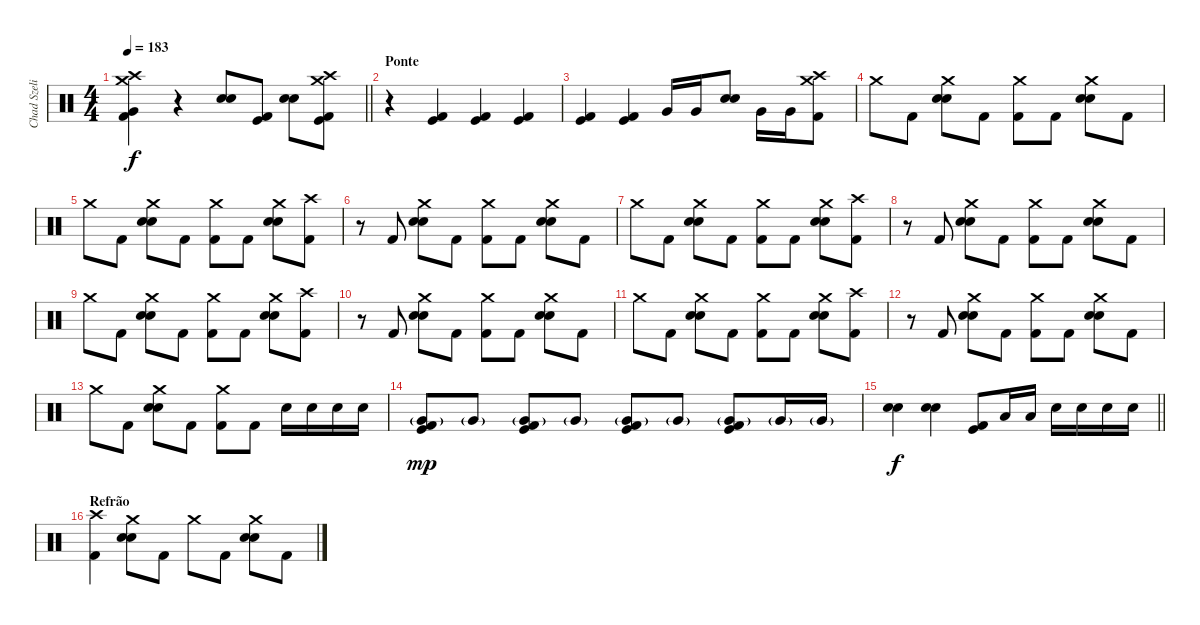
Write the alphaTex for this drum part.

\track ("Chad Szeliga" "Chad Szeli") {instrument percussion}
\staff {score}
\articulation defaults
\ts (4 4)
\tempo 183
\clef neutral
\barLineRight lightlight
\ks c
("Crash high (hit)" "Kick (hit) 2" "Very Low Tom (hit)" "Crash medium (hit)").4{dy f} r.4 ("Snare (hit) 2" "Snare (hit) 2").8 ("Kick (hit) 2" "Kick (hit)").8 ("Snare (hit) 2" "Snare (hit) 2").8 ("Crash high (hit)" "Kick (hit) 2" "Kick (hit)" "Crash medium (hit)").8 |
\section ("" "Ponte")
r.4 ("Kick (hit) 2" "Kick (hit)").4 ("Kick (hit) 2" "Kick (hit)").4 ("Kick (hit) 2" "Kick (hit)").4 |
("Kick (hit) 2" "Kick (hit)").4 ("Kick (hit) 2" "Kick (hit)").4 "Very Low Tom (hit)".16 "Very Low Tom (hit)".16 ("Snare (hit) 2" "Snare (hit) 2").8 "Very Low Tom (hit)".16 "Very Low Tom (hit)".16 ("Crash high (hit)" "Kick (hit) 2" "Crash medium (hit)").8 |
"Crash medium (hit)".8 "Kick (hit) 2".8 ("Crash medium (hit)" "Snare (hit) 2" "Snare (hit) 2").8 "Kick (hit) 2".8 ("Crash medium (hit)" "Kick (hit) 2").8 "Kick (hit) 2".8 ("Crash medium (hit)" "Snare (hit) 2" "Snare (hit) 2").8 "Kick (hit) 2".8 |
"Crash medium (hit)".8 "Kick (hit) 2".8 ("Crash medium (hit)" "Snare (hit) 2" "Snare (hit) 2").8 "Kick (hit) 2".8 ("Crash medium (hit)" "Kick (hit) 2").8 "Kick (hit) 2".8 ("Crash medium (hit)" "Snare (hit) 2" "Snare (hit) 2").8 ("Crash high (hit)" "Kick (hit) 2").8 |
r.8 "Kick (hit) 2".8 ("Crash medium (hit)" "Snare (hit) 2" "Snare (hit) 2").8 "Kick (hit) 2".8 ("Crash medium (hit)" "Kick (hit) 2").8 "Kick (hit) 2".8 ("Crash medium (hit)" "Snare (hit) 2" "Snare (hit) 2").8 "Kick (hit) 2".8 |
"Crash medium (hit)".8 "Kick (hit) 2".8 ("Crash medium (hit)" "Snare (hit) 2" "Snare (hit) 2").8 "Kick (hit) 2".8 ("Crash medium (hit)" "Kick (hit) 2").8 "Kick (hit) 2".8 ("Crash medium (hit)" "Snare (hit) 2" "Snare (hit) 2").8 ("Crash high (hit)" "Kick (hit) 2").8 |
r.8 "Kick (hit) 2".8 ("Crash medium (hit)" "Snare (hit) 2" "Snare (hit) 2").8 "Kick (hit) 2".8 ("Crash medium (hit)" "Kick (hit) 2").8 "Kick (hit) 2".8 ("Crash medium (hit)" "Snare (hit) 2" "Snare (hit) 2").8 "Kick (hit) 2".8 |
"Crash medium (hit)".8 "Kick (hit) 2".8 ("Crash medium (hit)" "Snare (hit) 2" "Snare (hit) 2").8 "Kick (hit) 2".8 ("Crash medium (hit)" "Kick (hit) 2").8 "Kick (hit) 2".8 ("Crash medium (hit)" "Snare (hit) 2" "Snare (hit) 2").8 ("Crash high (hit)" "Kick (hit) 2").8 |
r.8 "Kick (hit) 2".8 ("Crash medium (hit)" "Snare (hit) 2" "Snare (hit) 2").8 "Kick (hit) 2".8 ("Crash medium (hit)" "Kick (hit) 2").8 "Kick (hit) 2".8 ("Crash medium (hit)" "Snare (hit) 2" "Snare (hit) 2").8 "Kick (hit) 2".8 |
"Crash medium (hit)".8 "Kick (hit) 2".8 ("Crash medium (hit)" "Snare (hit) 2" "Snare (hit) 2").8 "Kick (hit) 2".8 ("Crash medium (hit)" "Kick (hit) 2").8 "Kick (hit) 2".8 ("Crash medium (hit)" "Snare (hit) 2" "Snare (hit) 2").8 ("Crash high (hit)" "Kick (hit) 2").8 |
r.8 "Kick (hit) 2".8 ("Crash medium (hit)" "Snare (hit) 2" "Snare (hit) 2").8 "Kick (hit) 2".8 ("Crash medium (hit)" "Kick (hit) 2").8 "Kick (hit) 2".8 ("Crash medium (hit)" "Snare (hit) 2" "Snare (hit) 2").8 "Kick (hit) 2".8 |
"Crash medium (hit)".8 "Kick (hit) 2".8 ("Crash medium (hit)" "Snare (hit) 2" "Snare (hit) 2").8 "Kick (hit) 2".8 ("Crash medium (hit)" "Kick (hit) 2").8 "Kick (hit) 2".8 "Snare (hit) 2".16 "Snare (hit) 2".16 "Snare (hit) 2".16 "Snare (hit) 2".16 |
("Kick (hit) 2" "Kick (hit)" "Very Low Tom (hit)"{g}).8{dy mp} "Very Low Tom (hit)"{g}.8 ("Kick (hit) 2" "Kick (hit)" "Very Low Tom (hit)"{g}).8 "Very Low Tom (hit)"{g}.8 ("Kick (hit) 2" "Kick (hit)" "Very Low Tom (hit)"{g}).8 "Very Low Tom (hit)"{g}.8 ("Kick (hit) 2" "Kick (hit)" "Very Low Tom (hit)"{g}).8 "Very Low Tom (hit)"{g}.16 "Very Low Tom (hit)"{g}.16 |
\barLineRight lightlight
("Snare (hit) 2" "Snare (hit) 2").4{dy f} ("Snare (hit) 2" "Snare (hit) 2").4 ("Kick (hit) 2" "Kick (hit)").8 "Low Tom (hit)".16 "Low Tom (hit)".16 "Snare (hit) 2".16 "Snare (hit) 2".16 "Snare (hit) 2".16 "Snare (hit) 2".16 |
\section ("" "Refrão")
("Crash high (hit)" "Kick (hit) 2").4 ("Crash medium (hit)" "Snare (hit) 2" "Snare (hit) 2").8 "Kick (hit) 2".8 "Crash medium (hit)".8 "Kick (hit) 2".8 ("Crash medium (hit)" "Snare (hit) 2" "Snare (hit) 2").8 "Kick (hit) 2".8
